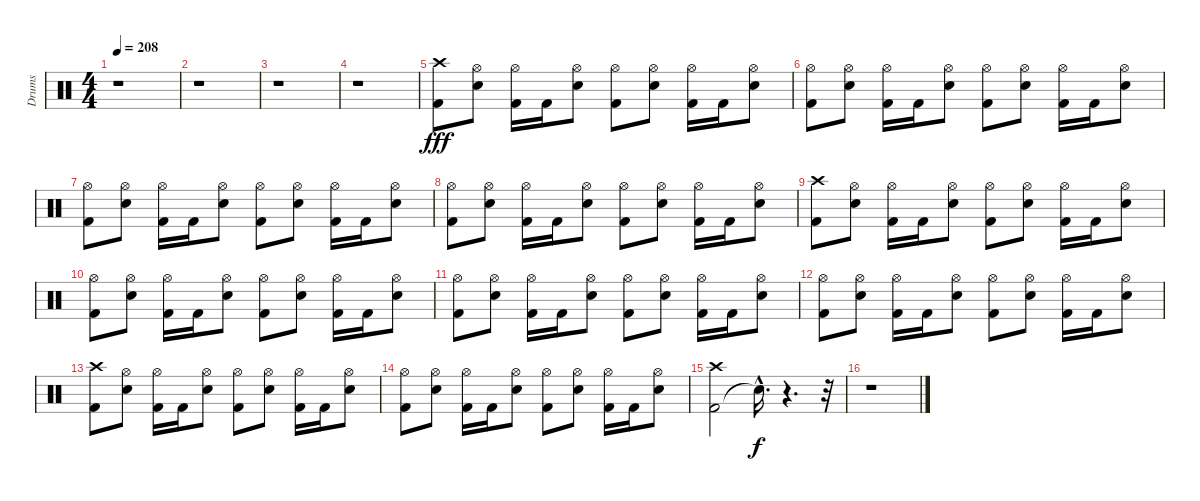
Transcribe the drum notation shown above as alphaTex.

\track ("Drums" "Drums") {instrument percussion}
\staff {score}
\articulation defaults
\ts (4 4)
\tempo 208
\clef neutral
\ks c
r.1{dy fff} |
r.1 |
r.1 |
r.1 |
("Kick (hit) 2" "Crash high (hit)").8 ("Electric Snare (hit)" "Hi-Hat (open)").8 ("Hi-Hat (open)" "Kick (hit) 2").16 "Kick (hit) 2".16 ("Electric Snare (hit)" "Hi-Hat (open)").8 ("Hi-Hat (open)" "Kick (hit) 2").8 ("Electric Snare (hit)" "Hi-Hat (open)").8 ("Hi-Hat (open)" "Kick (hit) 2").16 "Kick (hit) 2".16 ("Electric Snare (hit)" "Hi-Hat (open)").8 |
("Hi-Hat (open)" "Kick (hit) 2").8 ("Electric Snare (hit)" "Hi-Hat (open)").8 ("Hi-Hat (open)" "Kick (hit) 2").16 "Kick (hit) 2".16 ("Electric Snare (hit)" "Hi-Hat (open)").8 ("Hi-Hat (open)" "Kick (hit) 2").8 ("Electric Snare (hit)" "Hi-Hat (open)").8 ("Hi-Hat (open)" "Kick (hit) 2").16 "Kick (hit) 2".16 ("Electric Snare (hit)" "Hi-Hat (open)").8 |
("Hi-Hat (open)" "Kick (hit) 2").8 ("Electric Snare (hit)" "Hi-Hat (open)").8 ("Hi-Hat (open)" "Kick (hit) 2").16 "Kick (hit) 2".16 ("Electric Snare (hit)" "Hi-Hat (open)").8 ("Hi-Hat (open)" "Kick (hit) 2").8 ("Electric Snare (hit)" "Hi-Hat (open)").8 ("Hi-Hat (open)" "Kick (hit) 2").16 "Kick (hit) 2".16 ("Electric Snare (hit)" "Hi-Hat (open)").8 |
("Hi-Hat (open)" "Kick (hit) 2").8 ("Electric Snare (hit)" "Hi-Hat (open)").8 ("Hi-Hat (open)" "Kick (hit) 2").16 "Kick (hit) 2".16 ("Electric Snare (hit)" "Hi-Hat (open)").8 ("Hi-Hat (open)" "Kick (hit) 2").8 ("Electric Snare (hit)" "Hi-Hat (open)").8 ("Hi-Hat (open)" "Kick (hit) 2").16 "Kick (hit) 2".16 ("Electric Snare (hit)" "Hi-Hat (open)").8 |
("Kick (hit) 2" "Crash high (hit)").8 ("Electric Snare (hit)" "Hi-Hat (open)").8 ("Hi-Hat (open)" "Kick (hit) 2").16 "Kick (hit) 2".16 ("Electric Snare (hit)" "Hi-Hat (open)").8 ("Hi-Hat (open)" "Kick (hit) 2").8 ("Electric Snare (hit)" "Hi-Hat (open)").8 ("Hi-Hat (open)" "Kick (hit) 2").16 "Kick (hit) 2".16 ("Electric Snare (hit)" "Hi-Hat (open)").8 |
("Hi-Hat (open)" "Kick (hit) 2").8 ("Electric Snare (hit)" "Hi-Hat (open)").8 ("Hi-Hat (open)" "Kick (hit) 2").16 "Kick (hit) 2".16 ("Electric Snare (hit)" "Hi-Hat (open)").8 ("Hi-Hat (open)" "Kick (hit) 2").8 ("Electric Snare (hit)" "Hi-Hat (open)").8 ("Hi-Hat (open)" "Kick (hit) 2").16 "Kick (hit) 2".16 ("Electric Snare (hit)" "Hi-Hat (open)").8 |
("Hi-Hat (open)" "Kick (hit) 2").8 ("Electric Snare (hit)" "Hi-Hat (open)").8 ("Hi-Hat (open)" "Kick (hit) 2").16 "Kick (hit) 2".16 ("Electric Snare (hit)" "Hi-Hat (open)").8 ("Hi-Hat (open)" "Kick (hit) 2").8 ("Electric Snare (hit)" "Hi-Hat (open)").8 ("Hi-Hat (open)" "Kick (hit) 2").16 "Kick (hit) 2".16 ("Electric Snare (hit)" "Hi-Hat (open)").8 |
("Hi-Hat (open)" "Kick (hit) 2").8 ("Electric Snare (hit)" "Hi-Hat (open)").8 ("Hi-Hat (open)" "Kick (hit) 2").16 "Kick (hit) 2".16 ("Electric Snare (hit)" "Hi-Hat (open)").8 ("Hi-Hat (open)" "Kick (hit) 2").8 ("Electric Snare (hit)" "Hi-Hat (open)").8 ("Hi-Hat (open)" "Kick (hit) 2").16 "Kick (hit) 2".16 ("Electric Snare (hit)" "Hi-Hat (open)").8 |
("Kick (hit) 2" "Crash high (hit)").8 ("Electric Snare (hit)" "Hi-Hat (open)").8 ("Hi-Hat (open)" "Kick (hit) 2").16 "Kick (hit) 2".16 ("Electric Snare (hit)" "Hi-Hat (open)").8 ("Hi-Hat (open)" "Kick (hit) 2").8 ("Electric Snare (hit)" "Hi-Hat (open)").8 ("Hi-Hat (open)" "Kick (hit) 2").16 "Kick (hit) 2".16 ("Electric Snare (hit)" "Hi-Hat (open)").8 |
("Hi-Hat (open)" "Kick (hit) 2").8 ("Electric Snare (hit)" "Hi-Hat (open)").8 ("Hi-Hat (open)" "Kick (hit) 2").16 "Kick (hit) 2".16 ("Electric Snare (hit)" "Hi-Hat (open)").8 ("Hi-Hat (open)" "Kick (hit) 2").8 ("Electric Snare (hit)" "Hi-Hat (open)").8 ("Hi-Hat (open)" "Kick (hit) 2").16 "Kick (hit) 2".16 ("Electric Snare (hit)" "Hi-Hat (open)").8 |
("Kick (hit) 2" "Crash high (hit)").2 "Snare (hit)"{hac t}.16{d dy f} r.4{d} r.32 |
r.1
